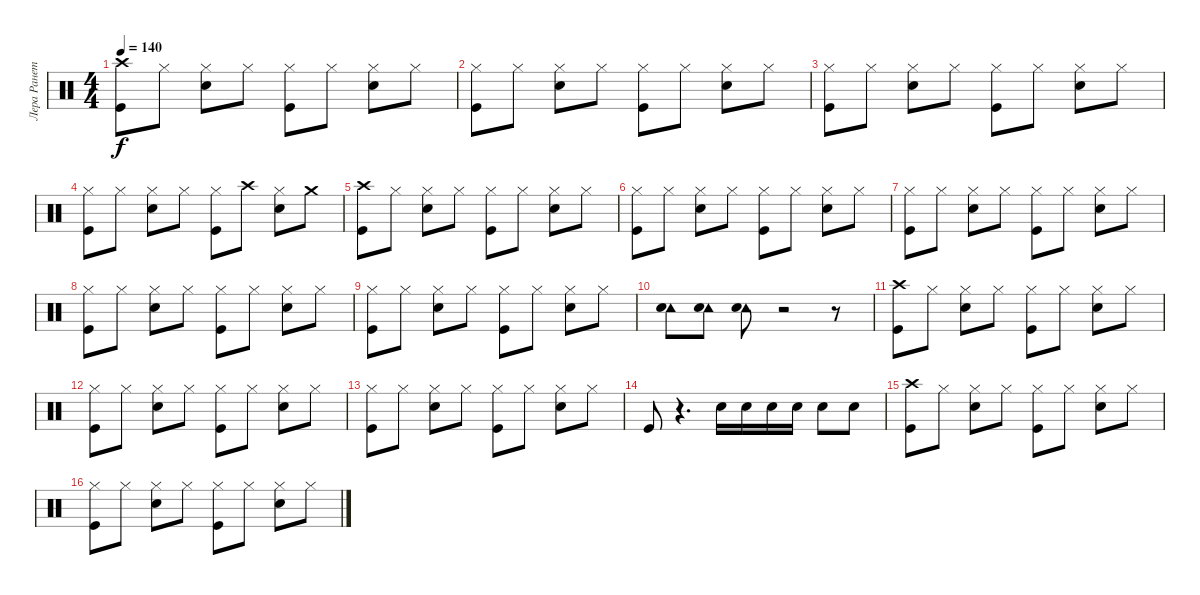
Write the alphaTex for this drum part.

\track ("Лера Ранетка" "Лера Ранет") {instrument percussion}
\staff {score}
\articulation defaults
\ts (4 4)
\tempo 140
\clef neutral
\ks c
("Crash high (hit)" "Kick (hit)").8{dy f} "Hi-Hat (closed)".8 ("Hi-Hat (closed)" "Electric Snare (hit)").8 "Hi-Hat (closed)".8 ("Hi-Hat (closed)" "Kick (hit)").8 "Hi-Hat (closed)".8 ("Hi-Hat (closed)" "Electric Snare (hit)").8 "Hi-Hat (closed)".8 |
("Hi-Hat (closed)" "Kick (hit)").8 "Hi-Hat (closed)".8 ("Hi-Hat (closed)" "Electric Snare (hit)").8 "Hi-Hat (closed)".8 ("Hi-Hat (closed)" "Kick (hit)").8 "Hi-Hat (closed)".8 ("Hi-Hat (closed)" "Electric Snare (hit)").8 "Hi-Hat (closed)".8 |
("Hi-Hat (closed)" "Kick (hit)").8 "Hi-Hat (closed)".8 ("Hi-Hat (closed)" "Electric Snare (hit)").8 "Hi-Hat (closed)".8 ("Hi-Hat (closed)" "Kick (hit)").8 "Hi-Hat (closed)".8 ("Hi-Hat (closed)" "Electric Snare (hit)").8 "Hi-Hat (closed)".8 |
("Hi-Hat (closed)" "Kick (hit)").8 "Hi-Hat (closed)".8 ("Hi-Hat (closed)" "Electric Snare (hit)").8 "Hi-Hat (closed)".8 ("Hi-Hat (closed)" "Kick (hit)").8 "Crash high (hit)".8 ("Hi-Hat (closed)" "Electric Snare (hit)").8 "Crash medium (hit)".8 |
("Crash high (hit)" "Kick (hit)").8 "Hi-Hat (closed)".8 ("Hi-Hat (closed)" "Electric Snare (hit)").8 "Hi-Hat (closed)".8 ("Hi-Hat (closed)" "Kick (hit)").8 "Hi-Hat (closed)".8 ("Hi-Hat (closed)" "Electric Snare (hit)").8 "Hi-Hat (closed)".8 |
("Hi-Hat (closed)" "Kick (hit)").8 "Hi-Hat (closed)".8 ("Hi-Hat (closed)" "Electric Snare (hit)").8 "Hi-Hat (closed)".8 ("Hi-Hat (closed)" "Kick (hit)").8 "Hi-Hat (closed)".8 ("Hi-Hat (closed)" "Electric Snare (hit)").8 "Hi-Hat (closed)".8 |
("Hi-Hat (closed)" "Kick (hit)").8 "Hi-Hat (closed)".8 ("Hi-Hat (closed)" "Electric Snare (hit)").8 "Hi-Hat (closed)".8 ("Hi-Hat (closed)" "Kick (hit)").8 "Hi-Hat (closed)".8 ("Hi-Hat (closed)" "Electric Snare (hit)").8 "Hi-Hat (closed)".8 |
("Hi-Hat (closed)" "Kick (hit)").8 "Hi-Hat (closed)".8 ("Hi-Hat (closed)" "Electric Snare (hit)").8 "Hi-Hat (closed)".8 ("Hi-Hat (closed)" "Kick (hit)").8 "Hi-Hat (closed)".8 ("Hi-Hat (closed)" "Electric Snare (hit)").8 "Hi-Hat (closed)".8 |
("Hi-Hat (closed)" "Kick (hit)").8 "Hi-Hat (closed)".8 ("Hi-Hat (closed)" "Electric Snare (hit)").8 "Hi-Hat (closed)".8 ("Hi-Hat (closed)" "Kick (hit)").8 "Hi-Hat (closed)".8 ("Hi-Hat (closed)" "Electric Snare (hit)").8 "Hi-Hat (closed)".8 |
("Tambourine (hit)" "Electric Snare (hit)").8 ("Tambourine (hit)" "Electric Snare (hit)").8 ("Tambourine (hit)" "Electric Snare (hit)").8 r.2 r.8 |
("Crash high (hit)" "Kick (hit)").8 "Hi-Hat (closed)".8 ("Hi-Hat (closed)" "Electric Snare (hit)").8 "Hi-Hat (closed)".8 ("Hi-Hat (closed)" "Kick (hit)").8 "Hi-Hat (closed)".8 ("Hi-Hat (closed)" "Electric Snare (hit)").8 "Hi-Hat (closed)".8 |
("Hi-Hat (closed)" "Kick (hit)").8 "Hi-Hat (closed)".8 ("Hi-Hat (closed)" "Electric Snare (hit)").8 "Hi-Hat (closed)".8 ("Hi-Hat (closed)" "Kick (hit)").8 "Hi-Hat (closed)".8 ("Hi-Hat (closed)" "Electric Snare (hit)").8 "Hi-Hat (closed)".8 |
("Hi-Hat (closed)" "Kick (hit)").8 "Hi-Hat (closed)".8 ("Hi-Hat (closed)" "Electric Snare (hit)").8 "Hi-Hat (closed)".8 ("Hi-Hat (closed)" "Kick (hit)").8 "Hi-Hat (closed)".8 ("Hi-Hat (closed)" "Electric Snare (hit)").8 "Hi-Hat (closed)".8 |
"Kick (hit)".8 r.4{d} "Electric Snare (hit)".16 "Electric Snare (hit)".16 "Electric Snare (hit)".16 "Electric Snare (hit)".16 "Electric Snare (hit)".8 "Electric Snare (hit)".8 |
("Crash high (hit)" "Kick (hit)").8 "Hi-Hat (closed)".8 ("Hi-Hat (closed)" "Electric Snare (hit)").8 "Hi-Hat (closed)".8 ("Hi-Hat (closed)" "Kick (hit)").8 "Hi-Hat (closed)".8 ("Hi-Hat (closed)" "Electric Snare (hit)").8 "Hi-Hat (closed)".8 |
("Hi-Hat (closed)" "Kick (hit)").8 "Hi-Hat (closed)".8 ("Hi-Hat (closed)" "Electric Snare (hit)").8 "Hi-Hat (closed)".8 ("Hi-Hat (closed)" "Kick (hit)").8 "Hi-Hat (closed)".8 ("Hi-Hat (closed)" "Electric Snare (hit)").8 "Hi-Hat (closed)".8
